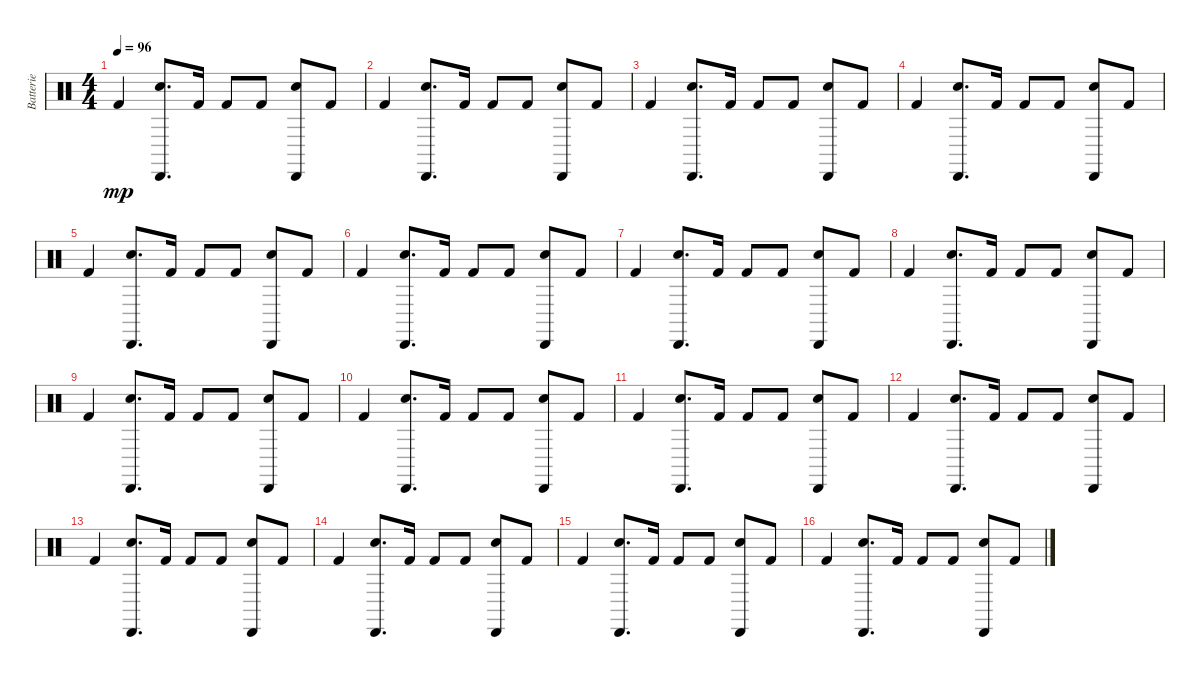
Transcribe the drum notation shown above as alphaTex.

\track ("Batterie" "Batterie") {instrument percussion}
\staff {score}
\articulation defaults
\ts (4 4)
\tempo 96
\clef neutral
\ks c "Kick (hit) 2".4{dy mp}
("Electric Snare (hit)" "Cabasa (hit)").8{d} "Kick (hit) 2".16 "Kick (hit) 2".8 "Kick (hit) 2".8 ("Cabasa (hit)" "Electric Snare (hit)").8 "Kick (hit) 2".8 |
"Kick (hit) 2".4 ("Electric Snare (hit)" "Cabasa (hit)").8{d} "Kick (hit) 2".16 "Kick (hit) 2".8 "Kick (hit) 2".8 ("Cabasa (hit)" "Electric Snare (hit)").8 "Kick (hit) 2".8 |
"Kick (hit) 2".4 ("Electric Snare (hit)" "Cabasa (hit)").8{d} "Kick (hit) 2".16 "Kick (hit) 2".8 "Kick (hit) 2".8 ("Cabasa (hit)" "Electric Snare (hit)").8 "Kick (hit) 2".8 |
"Kick (hit) 2".4 ("Electric Snare (hit)" "Cabasa (hit)").8{d} "Kick (hit) 2".16 "Kick (hit) 2".8 "Kick (hit) 2".8 ("Cabasa (hit)" "Electric Snare (hit)").8 "Kick (hit) 2".8 |
"Kick (hit) 2".4 ("Electric Snare (hit)" "Cabasa (hit)").8{d} "Kick (hit) 2".16 "Kick (hit) 2".8 "Kick (hit) 2".8 ("Cabasa (hit)" "Electric Snare (hit)").8 "Kick (hit) 2".8 |
"Kick (hit) 2".4 ("Electric Snare (hit)" "Cabasa (hit)").8{d} "Kick (hit) 2".16 "Kick (hit) 2".8 "Kick (hit) 2".8 ("Cabasa (hit)" "Electric Snare (hit)").8 "Kick (hit) 2".8 |
"Kick (hit) 2".4 ("Electric Snare (hit)" "Cabasa (hit)").8{d} "Kick (hit) 2".16 "Kick (hit) 2".8 "Kick (hit) 2".8 ("Cabasa (hit)" "Electric Snare (hit)").8 "Kick (hit) 2".8 |
"Kick (hit) 2".4 ("Electric Snare (hit)" "Cabasa (hit)").8{d} "Kick (hit) 2".16 "Kick (hit) 2".8 "Kick (hit) 2".8 ("Cabasa (hit)" "Electric Snare (hit)").8 "Kick (hit) 2".8 |
"Kick (hit) 2".4 ("Electric Snare (hit)" "Cabasa (hit)").8{d} "Kick (hit) 2".16 "Kick (hit) 2".8 "Kick (hit) 2".8 ("Cabasa (hit)" "Electric Snare (hit)").8 "Kick (hit) 2".8 |
"Kick (hit) 2".4 ("Electric Snare (hit)" "Cabasa (hit)").8{d} "Kick (hit) 2".16 "Kick (hit) 2".8 "Kick (hit) 2".8 ("Cabasa (hit)" "Electric Snare (hit)").8 "Kick (hit) 2".8 |
"Kick (hit) 2".4 ("Electric Snare (hit)" "Cabasa (hit)").8{d} "Kick (hit) 2".16 "Kick (hit) 2".8 "Kick (hit) 2".8 ("Cabasa (hit)" "Electric Snare (hit)").8 "Kick (hit) 2".8 |
"Kick (hit) 2".4 ("Electric Snare (hit)" "Cabasa (hit)").8{d} "Kick (hit) 2".16 "Kick (hit) 2".8 "Kick (hit) 2".8 ("Cabasa (hit)" "Electric Snare (hit)").8 "Kick (hit) 2".8 |
"Kick (hit) 2".4 ("Electric Snare (hit)" "Cabasa (hit)").8{d} "Kick (hit) 2".16 "Kick (hit) 2".8 "Kick (hit) 2".8 ("Cabasa (hit)" "Electric Snare (hit)").8 "Kick (hit) 2".8 |
"Kick (hit) 2".4 ("Electric Snare (hit)" "Cabasa (hit)").8{d} "Kick (hit) 2".16 "Kick (hit) 2".8 "Kick (hit) 2".8 ("Cabasa (hit)" "Electric Snare (hit)").8 "Kick (hit) 2".8 |
"Kick (hit) 2".4 ("Electric Snare (hit)" "Cabasa (hit)").8{d} "Kick (hit) 2".16 "Kick (hit) 2".8 "Kick (hit) 2".8 ("Cabasa (hit)" "Electric Snare (hit)").8 "Kick (hit) 2".8 |
"Kick (hit) 2".4 ("Electric Snare (hit)" "Cabasa (hit)").8{d} "Kick (hit) 2".16 "Kick (hit) 2".8 "Kick (hit) 2".8 ("Cabasa (hit)" "Electric Snare (hit)").8 "Kick (hit) 2".8
